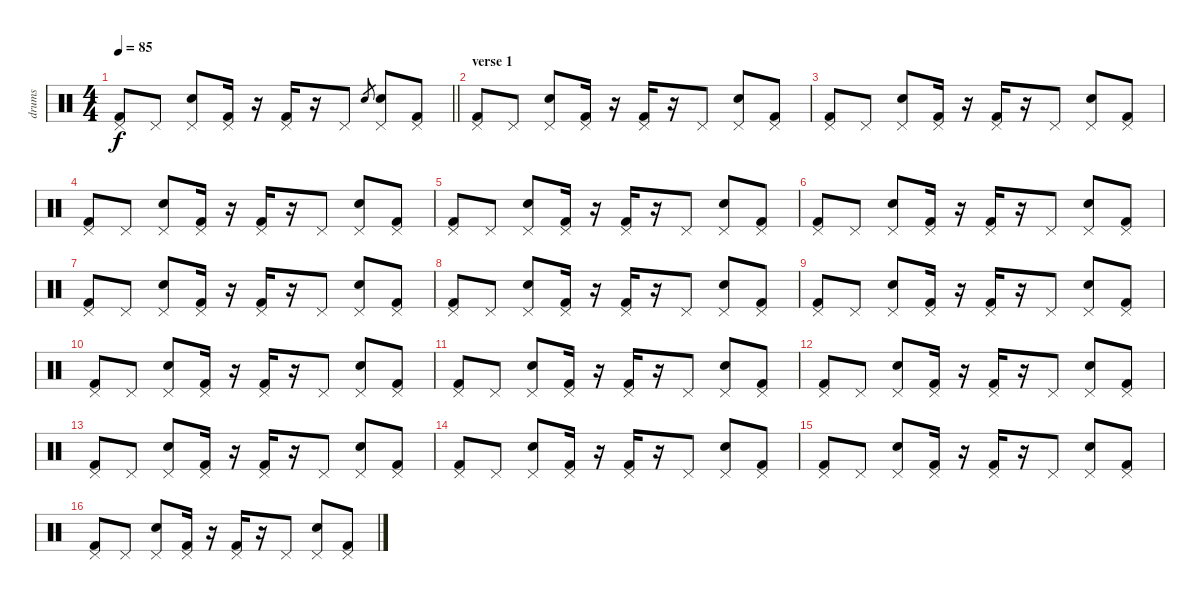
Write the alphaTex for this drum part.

\track ("drums" "drums") {instrument percussion}
\staff {score}
\articulation defaults
\ts (4 4)
\tempo 85
\clef neutral
\barLineRight lightlight
\ks c
("Kick (hit) 2" "Pedal Hi-Hat (hit)").8{dy f} "Pedal Hi-Hat (hit)".8 ("Electric Snare (hit)" "Pedal Hi-Hat (hit)").8 ("Kick (hit) 2" "Pedal Hi-Hat (hit)").16 r.16 ("Kick (hit) 2" "Pedal Hi-Hat (hit)").16 r.16 "Pedal Hi-Hat (hit)".8 "Electric Snare (hit)".8{gr} ("Electric Snare (hit)" "Pedal Hi-Hat (hit)").8 ("Kick (hit) 2" "Pedal Hi-Hat (hit)").8 |
\section ("" "verse 1")
("Kick (hit) 2" "Pedal Hi-Hat (hit)").8 "Pedal Hi-Hat (hit)".8 ("Electric Snare (hit)" "Pedal Hi-Hat (hit)").8 ("Kick (hit) 2" "Pedal Hi-Hat (hit)").16 r.16 ("Kick (hit) 2" "Pedal Hi-Hat (hit)").16 r.16 "Pedal Hi-Hat (hit)".8 ("Electric Snare (hit)" "Pedal Hi-Hat (hit)").8 ("Kick (hit) 2" "Pedal Hi-Hat (hit)").8 |
("Kick (hit) 2" "Pedal Hi-Hat (hit)").8 "Pedal Hi-Hat (hit)".8 ("Electric Snare (hit)" "Pedal Hi-Hat (hit)").8 ("Kick (hit) 2" "Pedal Hi-Hat (hit)").16 r.16 ("Kick (hit) 2" "Pedal Hi-Hat (hit)").16 r.16 "Pedal Hi-Hat (hit)".8 ("Electric Snare (hit)" "Pedal Hi-Hat (hit)").8 ("Kick (hit) 2" "Pedal Hi-Hat (hit)").8 |
("Kick (hit) 2" "Pedal Hi-Hat (hit)").8 "Pedal Hi-Hat (hit)".8 ("Electric Snare (hit)" "Pedal Hi-Hat (hit)").8 ("Kick (hit) 2" "Pedal Hi-Hat (hit)").16 r.16 ("Kick (hit) 2" "Pedal Hi-Hat (hit)").16 r.16 "Pedal Hi-Hat (hit)".8 ("Electric Snare (hit)" "Pedal Hi-Hat (hit)").8 ("Kick (hit) 2" "Pedal Hi-Hat (hit)").8 |
("Kick (hit) 2" "Pedal Hi-Hat (hit)").8 "Pedal Hi-Hat (hit)".8 ("Electric Snare (hit)" "Pedal Hi-Hat (hit)").8 ("Kick (hit) 2" "Pedal Hi-Hat (hit)").16 r.16 ("Kick (hit) 2" "Pedal Hi-Hat (hit)").16 r.16 "Pedal Hi-Hat (hit)".8 ("Electric Snare (hit)" "Pedal Hi-Hat (hit)").8 ("Kick (hit) 2" "Pedal Hi-Hat (hit)").8 |
("Kick (hit) 2" "Pedal Hi-Hat (hit)").8 "Pedal Hi-Hat (hit)".8 ("Electric Snare (hit)" "Pedal Hi-Hat (hit)").8 ("Kick (hit) 2" "Pedal Hi-Hat (hit)").16 r.16 ("Kick (hit) 2" "Pedal Hi-Hat (hit)").16 r.16 "Pedal Hi-Hat (hit)".8 ("Electric Snare (hit)" "Pedal Hi-Hat (hit)").8 ("Kick (hit) 2" "Pedal Hi-Hat (hit)").8 |
("Kick (hit) 2" "Pedal Hi-Hat (hit)").8 "Pedal Hi-Hat (hit)".8 ("Electric Snare (hit)" "Pedal Hi-Hat (hit)").8 ("Kick (hit) 2" "Pedal Hi-Hat (hit)").16 r.16 ("Kick (hit) 2" "Pedal Hi-Hat (hit)").16 r.16 "Pedal Hi-Hat (hit)".8 ("Electric Snare (hit)" "Pedal Hi-Hat (hit)").8 ("Kick (hit) 2" "Pedal Hi-Hat (hit)").8 |
("Kick (hit) 2" "Pedal Hi-Hat (hit)").8 "Pedal Hi-Hat (hit)".8 ("Electric Snare (hit)" "Pedal Hi-Hat (hit)").8 ("Kick (hit) 2" "Pedal Hi-Hat (hit)").16 r.16 ("Kick (hit) 2" "Pedal Hi-Hat (hit)").16 r.16 "Pedal Hi-Hat (hit)".8 ("Electric Snare (hit)" "Pedal Hi-Hat (hit)").8 ("Kick (hit) 2" "Pedal Hi-Hat (hit)").8 |
("Kick (hit) 2" "Pedal Hi-Hat (hit)").8 "Pedal Hi-Hat (hit)".8 ("Electric Snare (hit)" "Pedal Hi-Hat (hit)").8 ("Kick (hit) 2" "Pedal Hi-Hat (hit)").16 r.16 ("Kick (hit) 2" "Pedal Hi-Hat (hit)").16 r.16 "Pedal Hi-Hat (hit)".8 ("Electric Snare (hit)" "Pedal Hi-Hat (hit)").8 ("Kick (hit) 2" "Pedal Hi-Hat (hit)").8 |
("Kick (hit) 2" "Pedal Hi-Hat (hit)").8 "Pedal Hi-Hat (hit)".8 ("Electric Snare (hit)" "Pedal Hi-Hat (hit)").8 ("Kick (hit) 2" "Pedal Hi-Hat (hit)").16 r.16 ("Kick (hit) 2" "Pedal Hi-Hat (hit)").16 r.16 "Pedal Hi-Hat (hit)".8 ("Electric Snare (hit)" "Pedal Hi-Hat (hit)").8 ("Kick (hit) 2" "Pedal Hi-Hat (hit)").8 |
("Kick (hit) 2" "Pedal Hi-Hat (hit)").8 "Pedal Hi-Hat (hit)".8 ("Electric Snare (hit)" "Pedal Hi-Hat (hit)").8 ("Kick (hit) 2" "Pedal Hi-Hat (hit)").16 r.16 ("Kick (hit) 2" "Pedal Hi-Hat (hit)").16 r.16 "Pedal Hi-Hat (hit)".8 ("Electric Snare (hit)" "Pedal Hi-Hat (hit)").8 ("Kick (hit) 2" "Pedal Hi-Hat (hit)").8 |
("Kick (hit) 2" "Pedal Hi-Hat (hit)").8 "Pedal Hi-Hat (hit)".8 ("Electric Snare (hit)" "Pedal Hi-Hat (hit)").8 ("Kick (hit) 2" "Pedal Hi-Hat (hit)").16 r.16 ("Kick (hit) 2" "Pedal Hi-Hat (hit)").16 r.16 "Pedal Hi-Hat (hit)".8 ("Electric Snare (hit)" "Pedal Hi-Hat (hit)").8 ("Kick (hit) 2" "Pedal Hi-Hat (hit)").8 |
("Kick (hit) 2" "Pedal Hi-Hat (hit)").8 "Pedal Hi-Hat (hit)".8 ("Electric Snare (hit)" "Pedal Hi-Hat (hit)").8 ("Kick (hit) 2" "Pedal Hi-Hat (hit)").16 r.16 ("Kick (hit) 2" "Pedal Hi-Hat (hit)").16 r.16 "Pedal Hi-Hat (hit)".8 ("Electric Snare (hit)" "Pedal Hi-Hat (hit)").8 ("Kick (hit) 2" "Pedal Hi-Hat (hit)").8 |
("Kick (hit) 2" "Pedal Hi-Hat (hit)").8 "Pedal Hi-Hat (hit)".8 ("Electric Snare (hit)" "Pedal Hi-Hat (hit)").8 ("Kick (hit) 2" "Pedal Hi-Hat (hit)").16 r.16 ("Kick (hit) 2" "Pedal Hi-Hat (hit)").16 r.16 "Pedal Hi-Hat (hit)".8 ("Electric Snare (hit)" "Pedal Hi-Hat (hit)").8 ("Kick (hit) 2" "Pedal Hi-Hat (hit)").8 |
("Kick (hit) 2" "Pedal Hi-Hat (hit)").8 "Pedal Hi-Hat (hit)".8 ("Electric Snare (hit)" "Pedal Hi-Hat (hit)").8 ("Kick (hit) 2" "Pedal Hi-Hat (hit)").16 r.16 ("Kick (hit) 2" "Pedal Hi-Hat (hit)").16 r.16 "Pedal Hi-Hat (hit)".8 ("Electric Snare (hit)" "Pedal Hi-Hat (hit)").8 ("Kick (hit) 2" "Pedal Hi-Hat (hit)").8 |
("Kick (hit) 2" "Pedal Hi-Hat (hit)").8 "Pedal Hi-Hat (hit)".8 ("Electric Snare (hit)" "Pedal Hi-Hat (hit)").8 ("Kick (hit) 2" "Pedal Hi-Hat (hit)").16 r.16 ("Kick (hit) 2" "Pedal Hi-Hat (hit)").16 r.16 "Pedal Hi-Hat (hit)".8 ("Electric Snare (hit)" "Pedal Hi-Hat (hit)").8 ("Kick (hit) 2" "Pedal Hi-Hat (hit)").8
